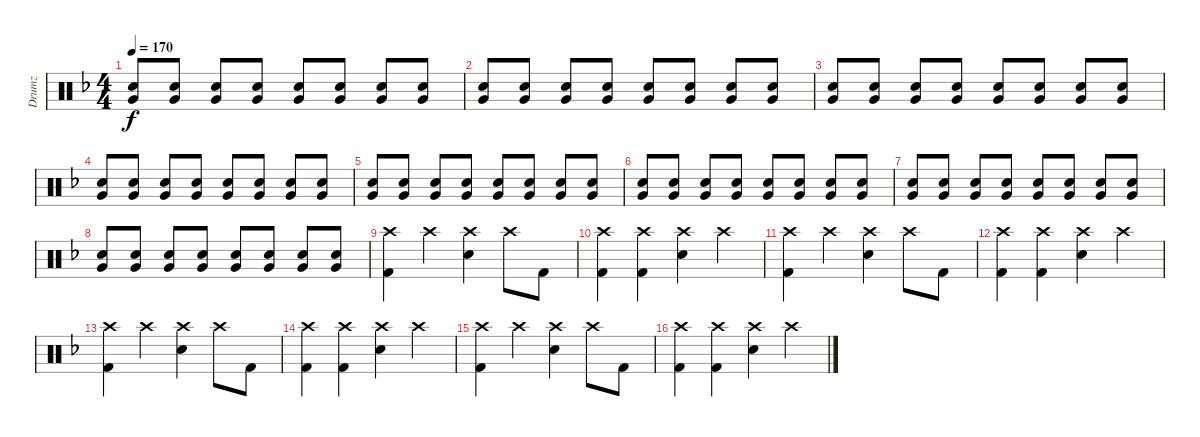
\track ("Drumz" "Drumz") {instrument percussion}
\staff {score}
\articulation defaults
\ts (4 4)
\tempo 170
\clef neutral
\ks dminor
("Snare (hit) 2" "Very Low Tom (hit)").8{dy f} ("Snare (hit) 2" "Very Low Tom (hit)").8 ("Very Low Tom (hit)" "Snare (hit) 2").8 ("Snare (hit) 2" "Very Low Tom (hit)").8 ("Snare (hit) 2" "Very Low Tom (hit)").8 ("Very Low Tom (hit)" "Snare (hit) 2").8 ("Snare (hit) 2" "Very Low Tom (hit)").8 ("Very Low Tom (hit)" "Snare (hit) 2").8 |
("Snare (hit) 2" "Very Low Tom (hit)").8 ("Snare (hit) 2" "Very Low Tom (hit)").8 ("Very Low Tom (hit)" "Snare (hit) 2").8 ("Snare (hit) 2" "Very Low Tom (hit)").8 ("Snare (hit) 2" "Very Low Tom (hit)").8 ("Very Low Tom (hit)" "Snare (hit) 2").8 ("Snare (hit) 2" "Very Low Tom (hit)").8 ("Very Low Tom (hit)" "Snare (hit) 2").8 |
("Snare (hit) 2" "Very Low Tom (hit)").8 ("Snare (hit) 2" "Very Low Tom (hit)").8 ("Very Low Tom (hit)" "Snare (hit) 2").8{volume 13} ("Snare (hit) 2" "Very Low Tom (hit)").8 ("Snare (hit) 2" "Very Low Tom (hit)").8 ("Very Low Tom (hit)" "Snare (hit) 2").8 ("Snare (hit) 2" "Very Low Tom (hit)").8 ("Very Low Tom (hit)" "Snare (hit) 2").8 |
("Snare (hit) 2" "Very Low Tom (hit)").8 ("Snare (hit) 2" "Very Low Tom (hit)").8 ("Very Low Tom (hit)" "Snare (hit) 2").8 ("Snare (hit) 2" "Very Low Tom (hit)").8 ("Snare (hit) 2" "Very Low Tom (hit)").8 ("Very Low Tom (hit)" "Snare (hit) 2").8 ("Snare (hit) 2" "Very Low Tom (hit)").8 ("Very Low Tom (hit)" "Snare (hit) 2").8 |
("Snare (hit) 2" "Very Low Tom (hit)").8 ("Snare (hit) 2" "Very Low Tom (hit)").8 ("Very Low Tom (hit)" "Snare (hit) 2").8 ("Snare (hit) 2" "Very Low Tom (hit)").8 ("Snare (hit) 2" "Very Low Tom (hit)").8 ("Very Low Tom (hit)" "Snare (hit) 2").8 ("Snare (hit) 2" "Very Low Tom (hit)").8 ("Very Low Tom (hit)" "Snare (hit) 2").8 |
("Snare (hit) 2" "Very Low Tom (hit)").8 ("Snare (hit) 2" "Very Low Tom (hit)").8 ("Very Low Tom (hit)" "Snare (hit) 2").8 ("Snare (hit) 2" "Very Low Tom (hit)").8 ("Snare (hit) 2" "Very Low Tom (hit)").8 ("Very Low Tom (hit)" "Snare (hit) 2").8 ("Snare (hit) 2" "Very Low Tom (hit)").8 ("Very Low Tom (hit)" "Snare (hit) 2").8 |
("Snare (hit) 2" "Very Low Tom (hit)").8 ("Snare (hit) 2" "Very Low Tom (hit)").8 ("Very Low Tom (hit)" "Snare (hit) 2").8 ("Snare (hit) 2" "Very Low Tom (hit)").8 ("Snare (hit) 2" "Very Low Tom (hit)").8 ("Very Low Tom (hit)" "Snare (hit) 2").8 ("Snare (hit) 2" "Very Low Tom (hit)").8 ("Very Low Tom (hit)" "Snare (hit) 2").8 |
("Snare (hit) 2" "Very Low Tom (hit)").8 ("Snare (hit) 2" "Very Low Tom (hit)").8 ("Very Low Tom (hit)" "Snare (hit) 2").8 ("Snare (hit) 2" "Very Low Tom (hit)").8 ("Snare (hit) 2" "Very Low Tom (hit)").8 ("Very Low Tom (hit)" "Snare (hit) 2").8 ("Snare (hit) 2" "Very Low Tom (hit)").8 ("Very Low Tom (hit)" "Snare (hit) 2").8 |
("Crash high (hit)" "Kick (hit) 2").4 "Crash high (hit)".4 ("Crash high (hit)" "Snare (hit) 2").4 "Crash high (hit)".8 "Kick (hit) 2".8 |
("Crash high (hit)" "Kick (hit) 2").4 ("Crash high (hit)" "Kick (hit) 2").4 ("Crash high (hit)" "Snare (hit) 2").4 "Crash high (hit)".4 |
("Crash high (hit)" "Kick (hit) 2").4 "Crash high (hit)".4 ("Crash high (hit)" "Snare (hit) 2").4 "Crash high (hit)".8 "Kick (hit) 2".8 |
("Crash high (hit)" "Kick (hit) 2").4 ("Crash high (hit)" "Kick (hit) 2").4 ("Crash high (hit)" "Snare (hit) 2").4 "Crash high (hit)".4 |
("Crash high (hit)" "Kick (hit) 2").4 "Crash high (hit)".4 ("Crash high (hit)" "Snare (hit) 2").4 "Crash high (hit)".8 "Kick (hit) 2".8 |
("Crash high (hit)" "Kick (hit) 2").4 ("Crash high (hit)" "Kick (hit) 2").4 ("Crash high (hit)" "Snare (hit) 2").4 "Crash high (hit)".4 |
("Crash high (hit)" "Kick (hit) 2").4 "Crash high (hit)".4 ("Crash high (hit)" "Snare (hit) 2").4 "Crash high (hit)".8 "Kick (hit) 2".8 |
("Crash high (hit)" "Kick (hit) 2").4 ("Crash high (hit)" "Kick (hit) 2").4 ("Crash high (hit)" "Snare (hit) 2").4 "Crash high (hit)".4
